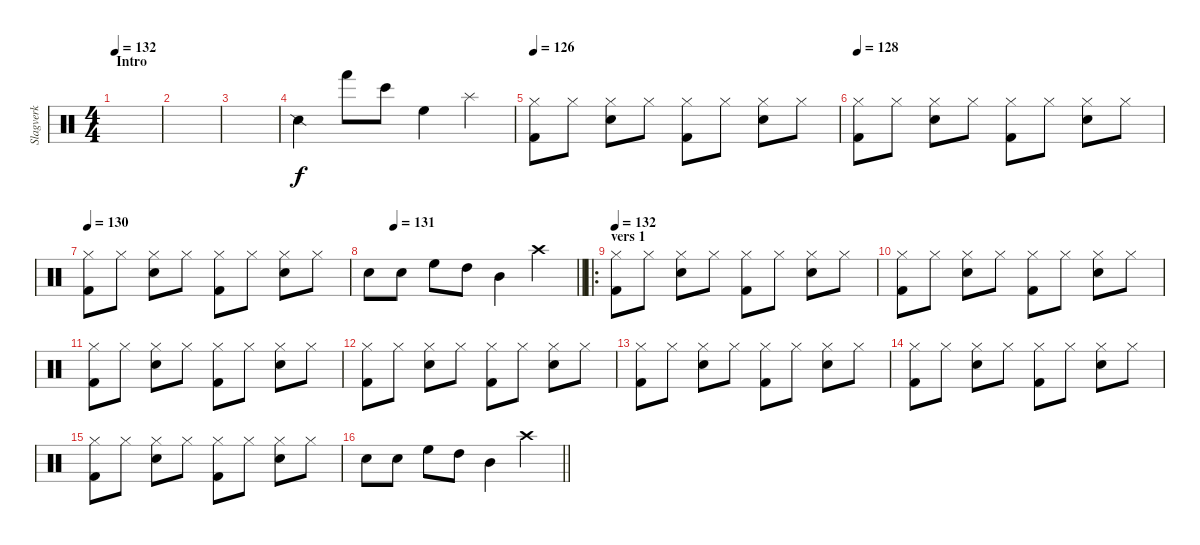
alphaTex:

\track ("Slagverk" "Slagverk") {instrument percussion}
\staff {score}
\articulation defaults
\ts (4 4)
\section ("" "Intro")
\tempo 132
\tempo 120
\tempo 132
\clef neutral
\ks c
|
|
|
"Snare (side stick) 2".4 "Hand (hit)".8 "Bongo High (hit)".8 "High Floor Tom (hit)".4 "Splash (hit)".4 |
\tempo 126
("Kick (hit) 2" "Hi-Hat (closed)").8 "Hi-Hat (closed)".8 ("Snare (hit) 2" "Hi-Hat (closed)").8 "Hi-Hat (closed)".8 ("Kick (hit) 2" "Hi-Hat (closed)").8 "Hi-Hat (closed)".8 ("Snare (hit) 2" "Hi-Hat (closed)").8 "Hi-Hat (closed)".8 |
\tempo 128
("Kick (hit) 2" "Hi-Hat (closed)").8 "Hi-Hat (closed)".8 ("Snare (hit) 2" "Hi-Hat (closed)").8 "Hi-Hat (closed)".8 ("Kick (hit) 2" "Hi-Hat (closed)").8 "Hi-Hat (closed)".8 ("Snare (hit) 2" "Hi-Hat (closed)").8 "Hi-Hat (closed)".8 |
\tempo 130
("Kick (hit) 2" "Hi-Hat (closed)").8 "Hi-Hat (closed)".8 ("Snare (hit) 2" "Hi-Hat (closed)").8 "Hi-Hat (closed)".8 ("Kick (hit) 2" "Hi-Hat (closed)").8 "Hi-Hat (closed)".8 ("Snare (hit) 2" "Hi-Hat (closed)").8 "Hi-Hat (closed)".8 |
\tempo (131 0.125)
\barLineRight lightlight "Snare (hit) 2".8 "Snare (hit) 2".8 "High Floor Tom (hit)".8 "High Tom (hit)".8 "Mid Tom (hit)".4 "Crash high (hit)".4
|
\ro
\section ("" "vers 1")
\tempo 132
("Kick (hit) 2" "Hi-Hat (closed)").8 "Hi-Hat (closed)".8 ("Snare (hit) 2" "Hi-Hat (closed)").8 "Hi-Hat (closed)".8 ("Kick (hit) 2" "Hi-Hat (closed)").8 "Hi-Hat (closed)".8 ("Snare (hit) 2" "Hi-Hat (closed)").8 "Hi-Hat (closed)".8 |
("Kick (hit) 2" "Hi-Hat (closed)").8 "Hi-Hat (closed)".8 ("Snare (hit) 2" "Hi-Hat (closed)").8 "Hi-Hat (closed)".8 ("Kick (hit) 2" "Hi-Hat (closed)").8 "Hi-Hat (closed)".8 ("Snare (hit) 2" "Hi-Hat (closed)").8 "Hi-Hat (closed)".8 |
("Kick (hit) 2" "Hi-Hat (closed)").8 "Hi-Hat (closed)".8 ("Snare (hit) 2" "Hi-Hat (closed)").8 "Hi-Hat (closed)".8 ("Kick (hit) 2" "Hi-Hat (closed)").8 "Hi-Hat (closed)".8 ("Snare (hit) 2" "Hi-Hat (closed)").8 "Hi-Hat (closed)".8 |
("Kick (hit) 2" "Hi-Hat (closed)").8 "Hi-Hat (closed)".8 ("Snare (hit) 2" "Hi-Hat (closed)").8 "Hi-Hat (closed)".8 ("Kick (hit) 2" "Hi-Hat (closed)").8 "Hi-Hat (closed)".8 ("Snare (hit) 2" "Hi-Hat (closed)").8 "Hi-Hat (closed)".8 |
("Kick (hit) 2" "Hi-Hat (closed)").8 "Hi-Hat (closed)".8 ("Snare (hit) 2" "Hi-Hat (closed)").8 "Hi-Hat (closed)".8 ("Kick (hit) 2" "Hi-Hat (closed)").8 "Hi-Hat (closed)".8 ("Snare (hit) 2" "Hi-Hat (closed)").8 "Hi-Hat (closed)".8 |
("Kick (hit) 2" "Hi-Hat (closed)").8 "Hi-Hat (closed)".8 ("Snare (hit) 2" "Hi-Hat (closed)").8 "Hi-Hat (closed)".8 ("Kick (hit) 2" "Hi-Hat (closed)").8 "Hi-Hat (closed)".8 ("Snare (hit) 2" "Hi-Hat (closed)").8 "Hi-Hat (closed)".8 |
("Kick (hit) 2" "Hi-Hat (closed)").8 "Hi-Hat (closed)".8 ("Snare (hit) 2" "Hi-Hat (closed)").8 "Hi-Hat (closed)".8 ("Kick (hit) 2" "Hi-Hat (closed)").8 "Hi-Hat (closed)".8 ("Snare (hit) 2" "Hi-Hat (closed)").8 "Hi-Hat (closed)".8 |
\barLineRight lightlight "Snare (hit) 2".8 "Snare (hit) 2".8 "High Floor Tom (hit)".8 "High Tom (hit)".8 "Mid Tom (hit)".4 "Crash high (hit)".4
